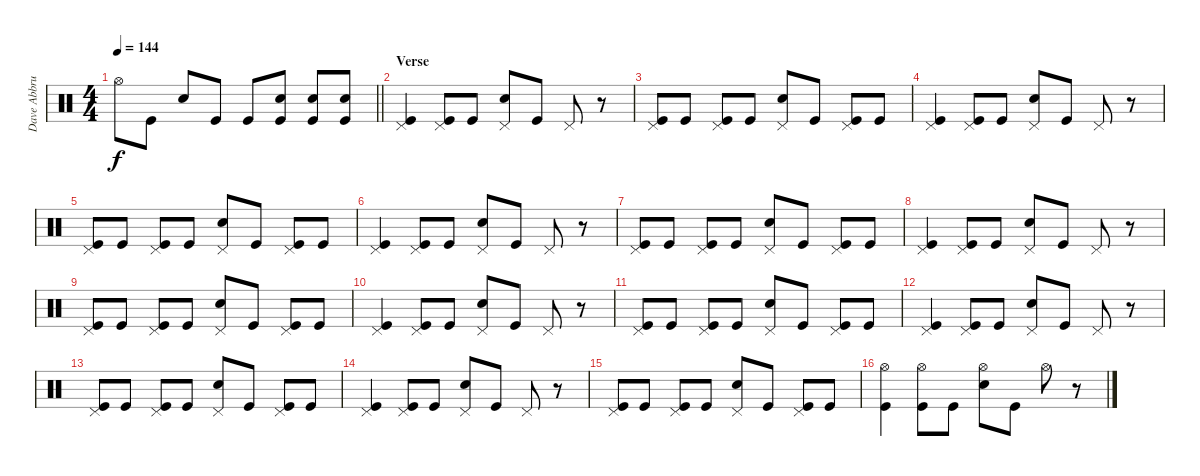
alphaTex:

\track ("Dave Abbruzzese" "Dave Abbru") {instrument percussion}
\staff {score}
\articulation defaults
\ts (4 4)
\tempo 144
\clef neutral
\barLineRight lightlight
\ks c "Hi-Hat (open)".8{dy f} "Kick (hit)".8 "Electric Snare (hit)".8 "Kick (hit)".8 "Kick (hit)".8
("Electric Snare (hit)" "Kick (hit)").8 ("Electric Snare (hit)" "Kick (hit)").8 ("Electric Snare (hit)" "Kick (hit)").8 |
\section ("" "Verse")
("Pedal Hi-Hat (hit)" "Kick (hit)").4 ("Pedal Hi-Hat (hit)" "Kick (hit)").8 "Kick (hit)".8 ("Pedal Hi-Hat (hit)" "Electric Snare (hit)").8 "Kick (hit)".8 "Pedal Hi-Hat (hit)".8 r.8 |
("Pedal Hi-Hat (hit)" "Kick (hit)").8 "Kick (hit)".8 ("Pedal Hi-Hat (hit)" "Kick (hit)").8 "Kick (hit)".8 ("Pedal Hi-Hat (hit)" "Electric Snare (hit)").8 "Kick (hit)".8 ("Pedal Hi-Hat (hit)" "Kick (hit)").8 "Kick (hit)".8 |
("Pedal Hi-Hat (hit)" "Kick (hit)").4 ("Pedal Hi-Hat (hit)" "Kick (hit)").8 "Kick (hit)".8 ("Pedal Hi-Hat (hit)" "Electric Snare (hit)").8 "Kick (hit)".8 "Pedal Hi-Hat (hit)".8 r.8 |
("Pedal Hi-Hat (hit)" "Kick (hit)").8 "Kick (hit)".8 ("Pedal Hi-Hat (hit)" "Kick (hit)").8 "Kick (hit)".8 ("Pedal Hi-Hat (hit)" "Electric Snare (hit)").8 "Kick (hit)".8 ("Pedal Hi-Hat (hit)" "Kick (hit)").8 "Kick (hit)".8 |
("Pedal Hi-Hat (hit)" "Kick (hit)").4 ("Pedal Hi-Hat (hit)" "Kick (hit)").8 "Kick (hit)".8 ("Pedal Hi-Hat (hit)" "Electric Snare (hit)").8 "Kick (hit)".8 "Pedal Hi-Hat (hit)".8 r.8 |
("Pedal Hi-Hat (hit)" "Kick (hit)").8 "Kick (hit)".8 ("Pedal Hi-Hat (hit)" "Kick (hit)").8 "Kick (hit)".8 ("Pedal Hi-Hat (hit)" "Electric Snare (hit)").8 "Kick (hit)".8 ("Pedal Hi-Hat (hit)" "Kick (hit)").8 "Kick (hit)".8 |
("Pedal Hi-Hat (hit)" "Kick (hit)").4 ("Pedal Hi-Hat (hit)" "Kick (hit)").8 "Kick (hit)".8 ("Pedal Hi-Hat (hit)" "Electric Snare (hit)").8 "Kick (hit)".8 "Pedal Hi-Hat (hit)".8 r.8 |
("Pedal Hi-Hat (hit)" "Kick (hit)").8 "Kick (hit)".8 ("Pedal Hi-Hat (hit)" "Kick (hit)").8 "Kick (hit)".8 ("Pedal Hi-Hat (hit)" "Electric Snare (hit)").8 "Kick (hit)".8 ("Pedal Hi-Hat (hit)" "Kick (hit)").8 "Kick (hit)".8 |
("Pedal Hi-Hat (hit)" "Kick (hit)").4 ("Pedal Hi-Hat (hit)" "Kick (hit)").8 "Kick (hit)".8 ("Pedal Hi-Hat (hit)" "Electric Snare (hit)").8 "Kick (hit)".8 "Pedal Hi-Hat (hit)".8 r.8 |
("Pedal Hi-Hat (hit)" "Kick (hit)").8 "Kick (hit)".8 ("Pedal Hi-Hat (hit)" "Kick (hit)").8 "Kick (hit)".8 ("Pedal Hi-Hat (hit)" "Electric Snare (hit)").8 "Kick (hit)".8 ("Pedal Hi-Hat (hit)" "Kick (hit)").8 "Kick (hit)".8 |
("Pedal Hi-Hat (hit)" "Kick (hit)").4 ("Pedal Hi-Hat (hit)" "Kick (hit)").8 "Kick (hit)".8 ("Pedal Hi-Hat (hit)" "Electric Snare (hit)").8 "Kick (hit)".8 "Pedal Hi-Hat (hit)".8 r.8 |
("Pedal Hi-Hat (hit)" "Kick (hit)").8 "Kick (hit)".8 ("Pedal Hi-Hat (hit)" "Kick (hit)").8 "Kick (hit)".8 ("Pedal Hi-Hat (hit)" "Electric Snare (hit)").8 "Kick (hit)".8 ("Pedal Hi-Hat (hit)" "Kick (hit)").8 "Kick (hit)".8 |
("Pedal Hi-Hat (hit)" "Kick (hit)").4 ("Pedal Hi-Hat (hit)" "Kick (hit)").8 "Kick (hit)".8 ("Pedal Hi-Hat (hit)" "Electric Snare (hit)").8 "Kick (hit)".8 "Pedal Hi-Hat (hit)".8 r.8 |
("Pedal Hi-Hat (hit)" "Kick (hit)").8 "Kick (hit)".8 ("Pedal Hi-Hat (hit)" "Kick (hit)").8 "Kick (hit)".8 ("Pedal Hi-Hat (hit)" "Electric Snare (hit)").8 "Kick (hit)".8 ("Pedal Hi-Hat (hit)" "Kick (hit)").8 "Kick (hit)".8 |
("Hi-Hat (open)" "Kick (hit)").4 ("Hi-Hat (open)" "Kick (hit)").8 "Kick (hit)".8 ("Hi-Hat (open)" "Electric Snare (hit)").8 "Kick (hit)".8 "Hi-Hat (open)".8 r.8
